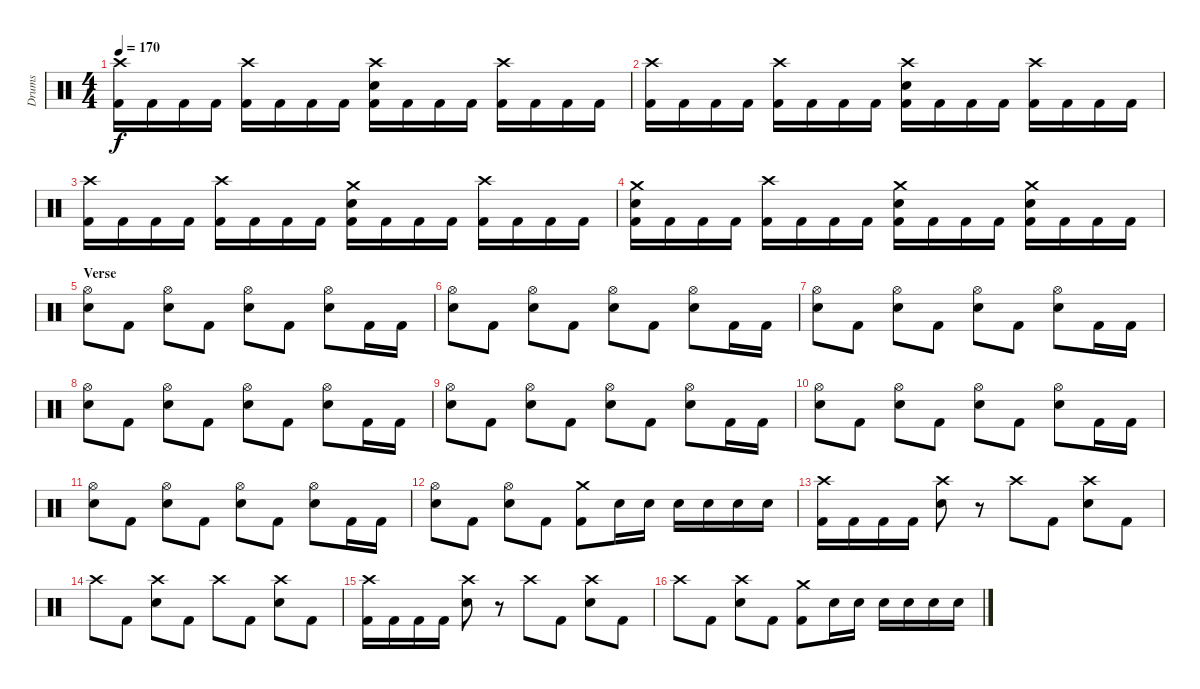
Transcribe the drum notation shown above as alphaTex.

\track ("Drums" "Drums") {instrument percussion}
\staff {score}
\articulation defaults
\ts (4 4)
\tempo 170
\clef neutral
\ks c
("Crash high (hit)" "Kick (hit) 2").16{dy f} "Kick (hit) 2".16 "Kick (hit) 2".16 "Kick (hit) 2".16 ("Crash high (hit)" "Kick (hit) 2").16 "Kick (hit) 2".16 "Kick (hit) 2".16 "Kick (hit) 2".16 ("Crash high (hit)" "Electric Snare (hit)" "Kick (hit) 2").16 "Kick (hit) 2".16 "Kick (hit) 2".16 "Kick (hit) 2".16 ("Crash high (hit)" "Kick (hit) 2").16 "Kick (hit) 2".16 "Kick (hit) 2".16 "Kick (hit) 2".16 |
("Crash high (hit)" "Kick (hit) 2").16 "Kick (hit) 2".16 "Kick (hit) 2".16 "Kick (hit) 2".16 ("Crash high (hit)" "Kick (hit) 2").16 "Kick (hit) 2".16 "Kick (hit) 2".16 "Kick (hit) 2".16 ("Crash high (hit)" "Electric Snare (hit)" "Kick (hit) 2").16 "Kick (hit) 2".16 "Kick (hit) 2".16 "Kick (hit) 2".16 ("Crash high (hit)" "Kick (hit) 2").16 "Kick (hit) 2".16 "Kick (hit) 2".16 "Kick (hit) 2".16 |
("Crash high (hit)" "Kick (hit) 2").16 "Kick (hit) 2".16 "Kick (hit) 2".16 "Kick (hit) 2".16 ("Crash high (hit)" "Kick (hit) 2").16 "Kick (hit) 2".16 "Kick (hit) 2".16 "Kick (hit) 2".16 ("Crash medium (hit)" "Electric Snare (hit)" "Kick (hit) 2").16 "Kick (hit) 2".16 "Kick (hit) 2".16 "Kick (hit) 2".16 ("Crash high (hit)" "Kick (hit) 2").16 "Kick (hit) 2".16 "Kick (hit) 2".16 "Kick (hit) 2".16 |
("Crash medium (hit)" "Electric Snare (hit)" "Kick (hit) 2").16 "Kick (hit) 2".16 "Kick (hit) 2".16 "Kick (hit) 2".16 ("Crash high (hit)" "Kick (hit) 2").16 "Kick (hit) 2".16 "Kick (hit) 2".16 "Kick (hit) 2".16 ("Crash medium (hit)" "Electric Snare (hit)" "Kick (hit) 2").16 "Kick (hit) 2".16 "Kick (hit) 2".16 "Kick (hit) 2".16 ("Crash medium (hit)" "Electric Snare (hit)" "Kick (hit) 2").16 "Kick (hit) 2".16 "Kick (hit) 2".16 "Kick (hit) 2".16 |
\section ("" "Verse")
("Hi-Hat (open)" "Electric Snare (hit)").8 "Kick (hit) 2".8 ("Hi-Hat (open)" "Electric Snare (hit)").8 "Kick (hit) 2".8 ("Hi-Hat (open)" "Electric Snare (hit)").8 "Kick (hit) 2".8 ("Hi-Hat (open)" "Electric Snare (hit)").8 "Kick (hit) 2".16 "Kick (hit) 2".16 |
("Hi-Hat (open)" "Electric Snare (hit)").8 "Kick (hit) 2".8 ("Hi-Hat (open)" "Electric Snare (hit)").8 "Kick (hit) 2".8 ("Hi-Hat (open)" "Electric Snare (hit)").8 "Kick (hit) 2".8 ("Hi-Hat (open)" "Electric Snare (hit)").8 "Kick (hit) 2".16 "Kick (hit) 2".16 |
("Hi-Hat (open)" "Electric Snare (hit)").8 "Kick (hit) 2".8 ("Hi-Hat (open)" "Electric Snare (hit)").8 "Kick (hit) 2".8 ("Hi-Hat (open)" "Electric Snare (hit)").8 "Kick (hit) 2".8 ("Hi-Hat (open)" "Electric Snare (hit)").8 "Kick (hit) 2".16 "Kick (hit) 2".16 |
("Hi-Hat (open)" "Electric Snare (hit)").8 "Kick (hit) 2".8 ("Hi-Hat (open)" "Electric Snare (hit)").8 "Kick (hit) 2".8 ("Hi-Hat (open)" "Electric Snare (hit)").8 "Kick (hit) 2".8 ("Hi-Hat (open)" "Electric Snare (hit)").8 "Kick (hit) 2".16 "Kick (hit) 2".16 |
("Hi-Hat (open)" "Electric Snare (hit)").8 "Kick (hit) 2".8 ("Hi-Hat (open)" "Electric Snare (hit)").8 "Kick (hit) 2".8 ("Hi-Hat (open)" "Electric Snare (hit)").8 "Kick (hit) 2".8 ("Hi-Hat (open)" "Electric Snare (hit)").8 "Kick (hit) 2".16 "Kick (hit) 2".16 |
("Hi-Hat (open)" "Electric Snare (hit)").8 "Kick (hit) 2".8 ("Hi-Hat (open)" "Electric Snare (hit)").8 "Kick (hit) 2".8 ("Hi-Hat (open)" "Electric Snare (hit)").8 "Kick (hit) 2".8 ("Hi-Hat (open)" "Electric Snare (hit)").8 "Kick (hit) 2".16 "Kick (hit) 2".16 |
("Hi-Hat (open)" "Electric Snare (hit)").8 "Kick (hit) 2".8 ("Hi-Hat (open)" "Electric Snare (hit)").8 "Kick (hit) 2".8 ("Hi-Hat (open)" "Electric Snare (hit)").8 "Kick (hit) 2".8 ("Hi-Hat (open)" "Electric Snare (hit)").8 "Kick (hit) 2".16 "Kick (hit) 2".16 |
("Hi-Hat (open)" "Electric Snare (hit)").8 "Kick (hit) 2".8 ("Hi-Hat (open)" "Electric Snare (hit)").8 "Kick (hit) 2".8 ("Crash medium (hit)" "Kick (hit) 2").8 "Electric Snare (hit)".16 "Electric Snare (hit)".16 "Electric Snare (hit)".16 "Electric Snare (hit)".16 "Electric Snare (hit)".16 "Electric Snare (hit)".16 |
("Crash high (hit)" "Kick (hit) 2").16 "Kick (hit) 2".16 "Kick (hit) 2".16 "Kick (hit) 2".16 ("Crash high (hit)" "Electric Snare (hit)").8 r.8 "Crash high (hit)".8 "Kick (hit) 2".8 ("Crash high (hit)" "Electric Snare (hit)").8 "Kick (hit) 2".8 |
"Crash high (hit)".8 "Kick (hit) 2".8 ("Crash high (hit)" "Electric Snare (hit)").8 "Kick (hit) 2".8 "Crash high (hit)".8 "Kick (hit) 2".8 ("Crash high (hit)" "Electric Snare (hit)").8 "Kick (hit) 2".8 |
("Crash high (hit)" "Kick (hit) 2").16 "Kick (hit) 2".16 "Kick (hit) 2".16 "Kick (hit) 2".16 ("Crash high (hit)" "Electric Snare (hit)").8 r.8 "Crash high (hit)".8 "Kick (hit) 2".8 ("Crash high (hit)" "Electric Snare (hit)").8 "Kick (hit) 2".8 |
"Crash high (hit)".8 "Kick (hit) 2".8 ("Crash high (hit)" "Electric Snare (hit)").8 "Kick (hit) 2".8 ("Crash medium (hit)" "Kick (hit) 2").8 "Electric Snare (hit)".16 "Electric Snare (hit)".16 "Electric Snare (hit)".16 "Electric Snare (hit)".16 "Electric Snare (hit)".16 "Electric Snare (hit)".16
